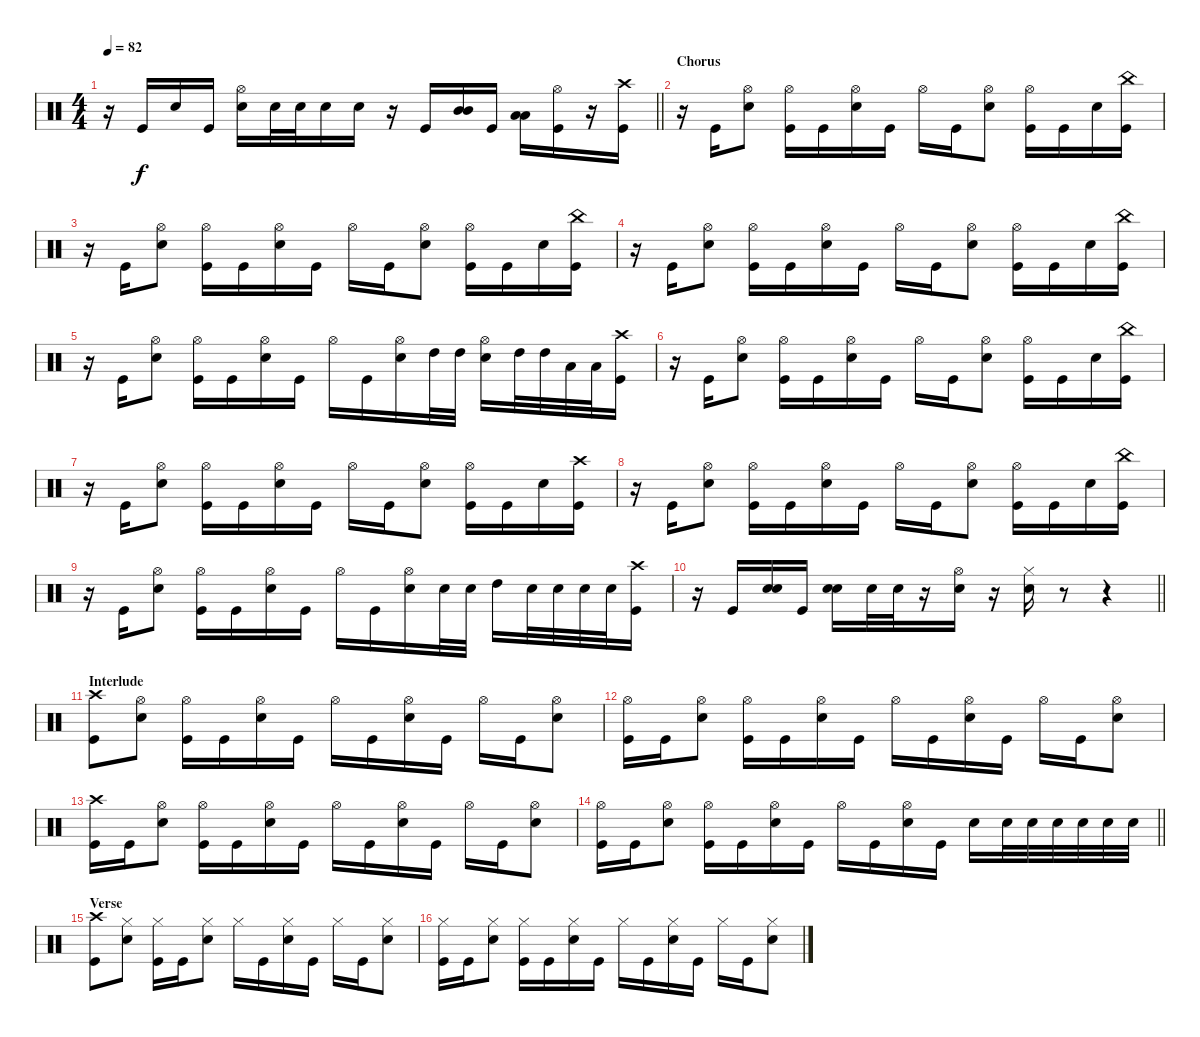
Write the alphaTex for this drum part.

\track "" {instrument percussion}
\staff {score}
\articulation defaults
\ts (4 4)
\tempo 82
\clef neutral
\barLineRight lightlight
\ks c
r.16{dy f} "Kick (hit)".16 "Snare (hit) 2".16 "Kick (hit)".16 ("Snare (hit) 2" "Hi-Hat (open)").16 "Snare (hit) 2".32 "Snare (hit) 2".32 "Snare (hit) 2".16 "Snare (hit) 2".16 r.16 "Kick (hit)".16 ("Mid Tom (hit)" "Mid Tom (hit)").16 "Kick (hit)".16 ("Low Tom (hit)" "Low Tom (hit)").16 ("Kick (hit)" "Hi-Hat (open)").16 r.16 ("Crash high (hit)" "Kick (hit)").16 |
\section ("" "Chorus")
r.16{txt ""} "Kick (hit)".16 ("Snare (hit) 2" "Hi-Hat (open)").8 ("Kick (hit)" "Hi-Hat (open)").16 "Kick (hit)".16 ("Snare (hit) 2" "Hi-Hat (open)").16 "Kick (hit)".16 "Hi-Hat (open)".16 "Kick (hit)".16 ("Snare (hit) 2" "Hi-Hat (open)").8 ("Kick (hit)" "Hi-Hat (open)").16 "Kick (hit)".16 "Snare (hit) 2".16 ("Kick (hit)" "China (hit)").16 |
r.16 "Kick (hit)".16 ("Snare (hit) 2" "Hi-Hat (open)").8 ("Kick (hit)" "Hi-Hat (open)").16 "Kick (hit)".16 ("Snare (hit) 2" "Hi-Hat (open)").16 "Kick (hit)".16 "Hi-Hat (open)".16 "Kick (hit)".16 ("Snare (hit) 2" "Hi-Hat (open)").8 ("Kick (hit)" "Hi-Hat (open)").16 "Kick (hit)".16 "Snare (hit) 2".16 ("China (hit)" "Kick (hit)").16 |
r.16 "Kick (hit)".16 ("Snare (hit) 2" "Hi-Hat (open)").8 ("Kick (hit)" "Hi-Hat (open)").16 "Kick (hit)".16 ("Snare (hit) 2" "Hi-Hat (open)").16 "Kick (hit)".16 "Hi-Hat (open)".16 "Kick (hit)".16 ("Snare (hit) 2" "Hi-Hat (open)").8 ("Kick (hit)" "Hi-Hat (open)").16 "Kick (hit)".16 "Snare (hit) 2".16 ("China (hit)" "Kick (hit)").16 |
r.16 "Kick (hit)".16 ("Snare (hit) 2" "Hi-Hat (open)").8 ("Kick (hit)" "Hi-Hat (open)").16 "Kick (hit)".16 ("Snare (hit) 2" "Hi-Hat (open)").16 "Kick (hit)".16 "Hi-Hat (open)".16 "Kick (hit)".16 ("Snare (hit) 2" "Hi-Hat (open)").16 "High Tom (hit)".32 "High Tom (hit)".32 ("Snare (hit) 2" "Hi-Hat (open)").16 "High Tom (hit)".32 "High Tom (hit)".32 "Low Tom (hit)".32 "Low Tom (hit)".32 ("Kick (hit)" "Crash high (hit)").16 |
r.16{txt ""} "Kick (hit)".16 ("Snare (hit) 2" "Hi-Hat (open)").8 ("Kick (hit)" "Hi-Hat (open)").16 "Kick (hit)".16 ("Snare (hit) 2" "Hi-Hat (open)").16 "Kick (hit)".16 "Hi-Hat (open)".16 "Kick (hit)".16 ("Snare (hit) 2" "Hi-Hat (open)").8 ("Kick (hit)" "Hi-Hat (open)").16 "Kick (hit)".16 "Snare (hit) 2".16 ("Kick (hit)" "China (hit)").16 |
r.16 "Kick (hit)".16 ("Snare (hit) 2" "Hi-Hat (open)").8 ("Kick (hit)" "Hi-Hat (open)").16 "Kick (hit)".16 ("Snare (hit) 2" "Hi-Hat (open)").16 "Kick (hit)".16 "Hi-Hat (open)".16 "Kick (hit)".16 ("Snare (hit) 2" "Hi-Hat (open)").8 ("Kick (hit)" "Hi-Hat (open)").16 "Kick (hit)".16 "Snare (hit) 2".16 ("Crash high (hit)" "Kick (hit)").16 |
r.16 "Kick (hit)".16 ("Snare (hit) 2" "Hi-Hat (open)").8 ("Kick (hit)" "Hi-Hat (open)").16 "Kick (hit)".16 ("Snare (hit) 2" "Hi-Hat (open)").16 "Kick (hit)".16 "Hi-Hat (open)".16 "Kick (hit)".16 ("Snare (hit) 2" "Hi-Hat (open)").8 ("Kick (hit)" "Hi-Hat (open)").16 "Kick (hit)".16 "Snare (hit) 2".16 ("China (hit)" "Kick (hit)").16 |
r.16 "Kick (hit)".16 ("Snare (hit) 2" "Hi-Hat (open)").8 ("Kick (hit)" "Hi-Hat (open)").16 "Kick (hit)".16 ("Snare (hit) 2" "Hi-Hat (open)").16 "Kick (hit)".16 "Hi-Hat (open)".16 "Kick (hit)".16 ("Snare (hit) 2" "Hi-Hat (open)").16 "Snare (hit) 2".32 "Snare (hit) 2".32 "High Tom (hit)".16 "Snare (hit) 2".32 "Snare (hit) 2".32 "Snare (hit) 2".32 "Snare (hit) 2".32 ("Kick (hit)" "Crash high (hit)").16 |
\barLineRight lightlight
r.16 "Kick (hit)".16 ("Snare (hit) 2" "Snare (hit) 2").16 "Kick (hit)".16 ("Snare (hit) 2" "Snare (hit) 2").16 "Snare (hit) 2".32 "Snare (hit) 2".32 r.16 ("Snare (hit) 2" "Hi-Hat (open)").16 r.16 ("Snare (hit) 2" "Hi-Hat (closed)").16 r.8 r.4 |
\section ("" "Interlude")
("Crash high (hit)" "Kick (hit)").8{txt ""} ("Snare (hit) 2" "Hi-Hat (open)").8 ("Kick (hit)" "Hi-Hat (open)").16 "Kick (hit)".16 ("Snare (hit) 2" "Hi-Hat (open)").16 "Kick (hit)".16 "Hi-Hat (open)".16 "Kick (hit)".16 ("Snare (hit) 2" "Hi-Hat (open)").16 "Kick (hit)".16 "Hi-Hat (open)".16 "Kick (hit)".16 ("Snare (hit) 2" "Hi-Hat (open)").8 |
("Hi-Hat (open)" "Kick (hit)").16 "Kick (hit)".16 ("Snare (hit) 2" "Hi-Hat (open)").8 ("Kick (hit)" "Hi-Hat (open)").16 "Kick (hit)".16 ("Snare (hit) 2" "Hi-Hat (open)").16 "Kick (hit)".16 "Hi-Hat (open)".16 "Kick (hit)".16 ("Snare (hit) 2" "Hi-Hat (open)").16 "Kick (hit)".16 "Hi-Hat (open)".16 "Kick (hit)".16 ("Snare (hit) 2" "Hi-Hat (open)").8 |
("Crash high (hit)" "Kick (hit)").16 "Kick (hit)".16 ("Snare (hit) 2" "Hi-Hat (open)").8 ("Kick (hit)" "Hi-Hat (open)").16 "Kick (hit)".16 ("Snare (hit) 2" "Hi-Hat (open)").16 "Kick (hit)".16 "Hi-Hat (open)".16 "Kick (hit)".16 ("Snare (hit) 2" "Hi-Hat (open)").16 "Kick (hit)".16 "Hi-Hat (open)".16 "Kick (hit)".16 ("Snare (hit) 2" "Hi-Hat (open)").8 |
\barLineRight lightlight
("Hi-Hat (open)" "Kick (hit)").16 "Kick (hit)".16 ("Snare (hit) 2" "Hi-Hat (open)").8 ("Kick (hit)" "Hi-Hat (open)").16 "Kick (hit)".16 ("Snare (hit) 2" "Hi-Hat (open)").16 "Kick (hit)".16 "Hi-Hat (open)".16 "Kick (hit)".16 ("Snare (hit) 2" "Hi-Hat (open)").16 "Kick (hit)".16 "Snare (hit) 2".16 "Snare (hit) 2".32 "Snare (hit) 2".32 "Snare (hit) 2".32 "Snare (hit) 2".32 "Snare (hit) 2".32 "Snare (hit) 2".32 |
\section ("" "Verse")
("Kick (hit)" "Crash high (hit)").8{txt ""} ("Snare (hit) 2" "Hi-Hat (closed)").8 ("Hi-Hat (closed)" "Kick (hit)").16 "Kick (hit)".16 ("Snare (hit) 2" "Hi-Hat (closed)").8 "Hi-Hat (closed)".16 "Kick (hit)".16 ("Snare (hit) 2" "Hi-Hat (closed)").16 "Kick (hit)".16 "Hi-Hat (closed)".16 "Kick (hit)".16 ("Snare (hit) 2" "Hi-Hat (closed)").8 |
("Hi-Hat (closed)" "Kick (hit)").16 "Kick (hit)".16 ("Snare (hit) 2" "Hi-Hat (closed)").8 ("Hi-Hat (closed)" "Kick (hit)").16 "Kick (hit)".16 ("Snare (hit) 2" "Hi-Hat (closed)").16 "Kick (hit)".16 "Hi-Hat (closed)".16 "Kick (hit)".16 ("Snare (hit) 2" "Hi-Hat (closed)").16 "Kick (hit)".16 "Hi-Hat (closed)".16 "Kick (hit)".16 ("Snare (hit) 2" "Hi-Hat (closed)").8
